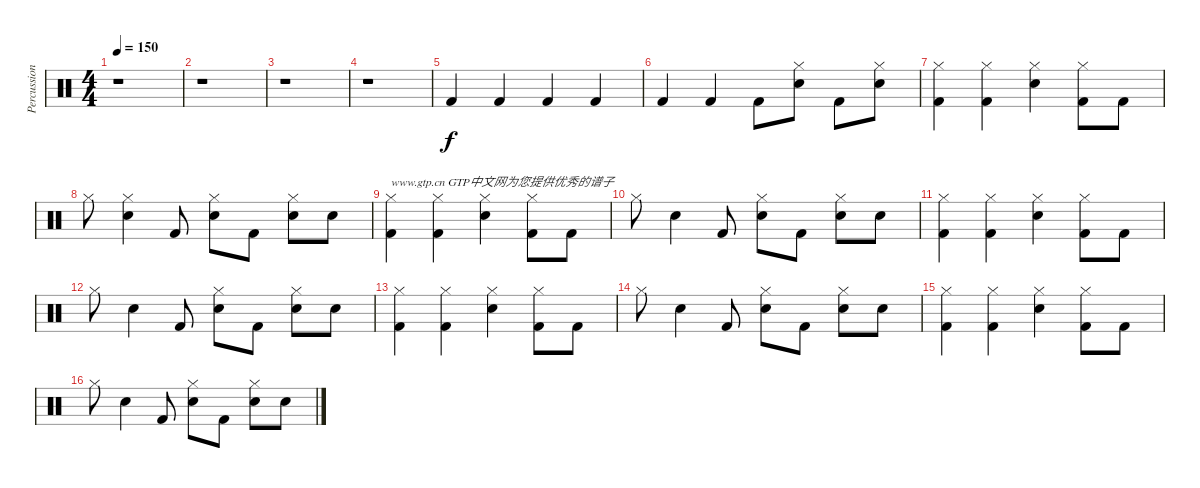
\track ("Percussion" "Percussion") {instrument percussion}
\staff {score}
\articulation defaults
\ts (4 4)
\tempo 150
\clef neutral
\ks c
r.1{dy f} |
r.1 |
r.1 |
r.1 |
"Kick (hit) 2".4 "Kick (hit) 2".4 "Kick (hit) 2".4 "Kick (hit) 2".4 |
"Kick (hit) 2".4 "Kick (hit) 2".4 "Kick (hit) 2".8 ("Snare (hit) 2" "Hi-Hat (closed)").8 "Kick (hit) 2".8 ("Snare (hit) 2" "Hi-Hat (closed)").8 |
("Hi-Hat (closed)" "Kick (hit) 2").4 ("Hi-Hat (closed)" "Kick (hit) 2").4 ("Hi-Hat (closed)" "Snare (hit) 2").4 ("Hi-Hat (closed)" "Kick (hit) 2").8 "Kick (hit) 2".8 |
"Hi-Hat (closed)".8 ("Snare (hit) 2" "Hi-Hat (closed)").4 "Kick (hit) 2".8 ("Snare (hit) 2" "Hi-Hat (closed)").8 "Kick (hit) 2".8 ("Snare (hit) 2" "Hi-Hat (closed)").8 "Snare (hit) 2".8 |
("Hi-Hat (closed)" "Kick (hit) 2").4{txt "www.gtp.cn GTP中文网为您提供优秀的谱子"} ("Hi-Hat (closed)" "Kick (hit) 2").4 ("Hi-Hat (closed)" "Snare (hit) 2").4 ("Hi-Hat (closed)" "Kick (hit) 2").8 "Kick (hit) 2".8 |
"Hi-Hat (closed)".8 "Snare (hit) 2".4 "Kick (hit) 2".8 ("Snare (hit) 2" "Hi-Hat (closed)").8 "Kick (hit) 2".8 ("Snare (hit) 2" "Hi-Hat (closed)").8 "Snare (hit) 2".8 |
("Hi-Hat (closed)" "Kick (hit) 2").4 ("Hi-Hat (closed)" "Kick (hit) 2").4 ("Hi-Hat (closed)" "Snare (hit) 2").4 ("Hi-Hat (closed)" "Kick (hit) 2").8 "Kick (hit) 2".8 |
"Hi-Hat (closed)".8 "Snare (hit) 2".4 "Kick (hit) 2".8 ("Snare (hit) 2" "Hi-Hat (closed)").8 "Kick (hit) 2".8 ("Snare (hit) 2" "Hi-Hat (closed)").8 "Snare (hit) 2".8 |
("Hi-Hat (closed)" "Kick (hit) 2").4 ("Hi-Hat (closed)" "Kick (hit) 2").4 ("Hi-Hat (closed)" "Snare (hit) 2").4 ("Hi-Hat (closed)" "Kick (hit) 2").8 "Kick (hit) 2".8 |
"Hi-Hat (closed)".8 "Snare (hit) 2".4 "Kick (hit) 2".8 ("Snare (hit) 2" "Hi-Hat (closed)").8 "Kick (hit) 2".8 ("Snare (hit) 2" "Hi-Hat (closed)").8 "Snare (hit) 2".8 |
("Hi-Hat (closed)" "Kick (hit) 2").4 ("Hi-Hat (closed)" "Kick (hit) 2").4 ("Hi-Hat (closed)" "Snare (hit) 2").4 ("Hi-Hat (closed)" "Kick (hit) 2").8 "Kick (hit) 2".8 |
"Hi-Hat (closed)".8 "Snare (hit) 2".4 "Kick (hit) 2".8 ("Snare (hit) 2" "Hi-Hat (closed)").8 "Kick (hit) 2".8 ("Snare (hit) 2" "Hi-Hat (closed)").8 "Snare (hit) 2".8
